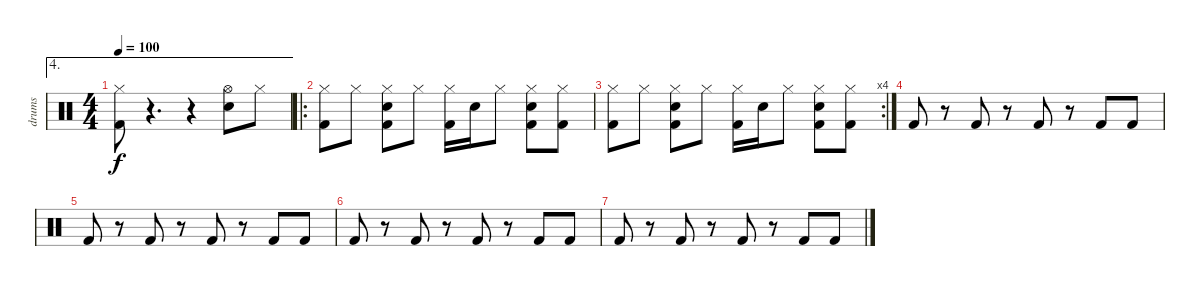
\track ("drums" "drums") {instrument percussion}
\staff {score}
\articulation defaults
\ae 4
\ts (4 4)
\tempo 100
\clef neutral
\ks c
("Hi-Hat (closed)" "Kick (hit) 2").8{dy f} r.4{d} r.4 ("Hi-Hat (open)" "Electric Snare (hit)").8 "Hi-Hat (closed)".8 |
\ro
("Hi-Hat (closed)" "Kick (hit) 2").8 "Hi-Hat (closed)".8 ("Hi-Hat (closed)" "Electric Snare (hit)" "Kick (hit) 2").8 "Hi-Hat (closed)".8 ("Hi-Hat (closed)" "Kick (hit) 2").16 "Electric Snare (hit)".16 "Hi-Hat (closed)".8 ("Hi-Hat (closed)" "Electric Snare (hit)" "Kick (hit) 2").8 ("Hi-Hat (closed)" "Kick (hit) 2").8 |
\rc 4
("Hi-Hat (closed)" "Kick (hit) 2").8 "Hi-Hat (closed)".8 ("Hi-Hat (closed)" "Electric Snare (hit)" "Kick (hit) 2").8 "Hi-Hat (closed)".8 ("Hi-Hat (closed)" "Kick (hit) 2").16 "Electric Snare (hit)".16 "Hi-Hat (closed)".8 ("Hi-Hat (closed)" "Electric Snare (hit)" "Kick (hit) 2").8 ("Hi-Hat (closed)" "Kick (hit) 2").8 |
"Kick (hit) 2".8 r.8 "Kick (hit) 2".8 r.8 "Kick (hit) 2".8 r.8 "Kick (hit) 2".8 "Kick (hit) 2".8 |
"Kick (hit) 2".8 r.8 "Kick (hit) 2".8 r.8 "Kick (hit) 2".8 r.8 "Kick (hit) 2".8 "Kick (hit) 2".8 |
"Kick (hit) 2".8 r.8 "Kick (hit) 2".8 r.8 "Kick (hit) 2".8 r.8 "Kick (hit) 2".8 "Kick (hit) 2".8 |
"Kick (hit) 2".8 r.8 "Kick (hit) 2".8 r.8 "Kick (hit) 2".8 r.8 "Kick (hit) 2".8 "Kick (hit) 2".8
